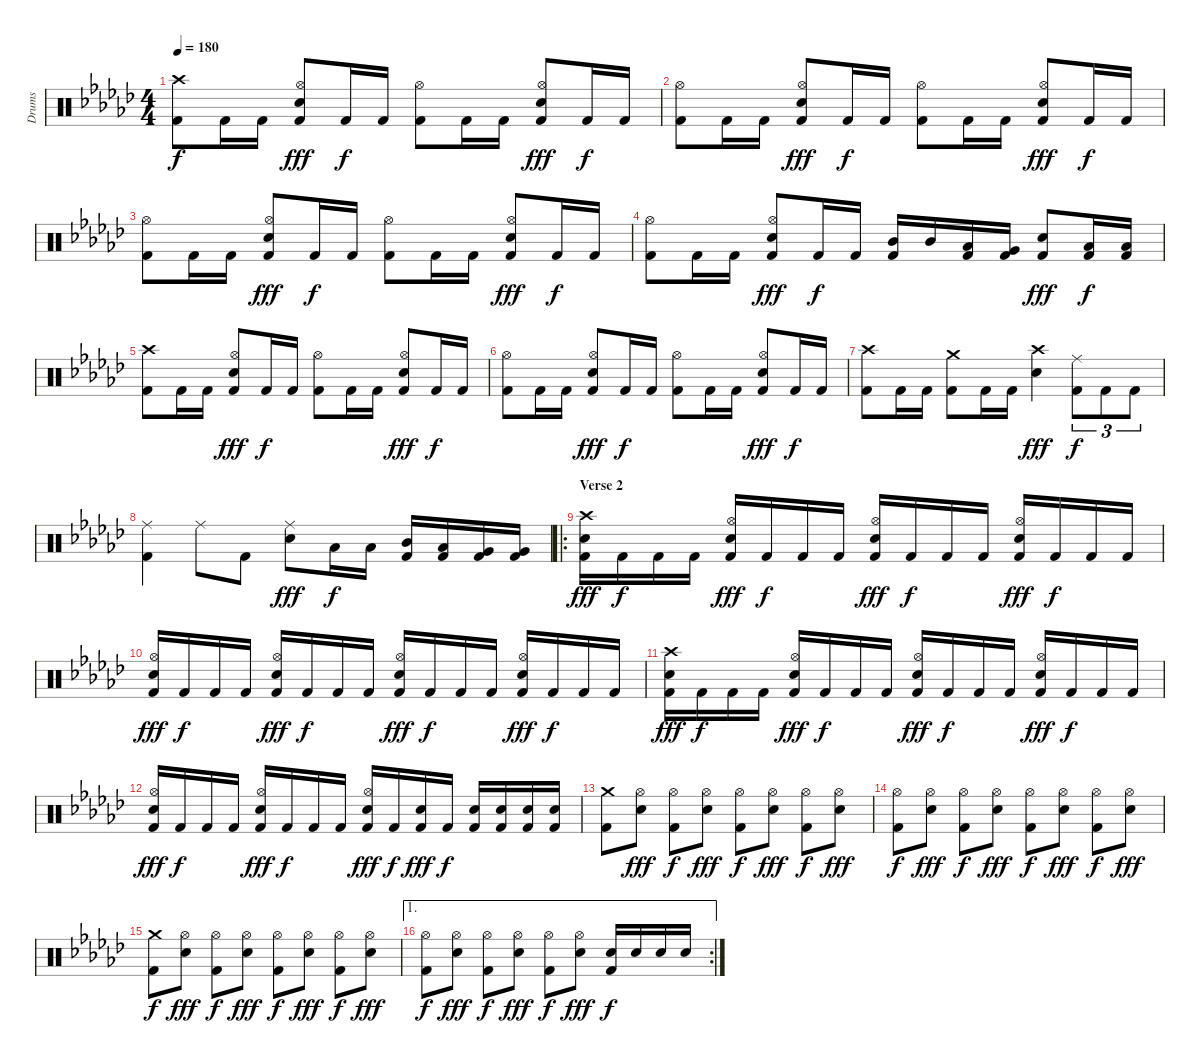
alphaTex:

\track ("Drums" "Drums") {instrument percussion}
\staff {score}
\articulation defaults
\ts (4 4)
\tempo 180
\clef neutral
\ks ebminor
("Crash high (hit)" "Kick (hit) 2").8{dy f} "Kick (hit) 2".16 "Kick (hit) 2".16 ("Hi-Hat (open)" "Snare (hit) 2" "Kick (hit) 2").8{dy fff} "Kick (hit) 2".16{dy f} "Kick (hit) 2".16 ("Hi-Hat (open)" "Kick (hit) 2").8 "Kick (hit) 2".16 "Kick (hit) 2".16 ("Hi-Hat (open)" "Snare (hit) 2" "Kick (hit) 2").8{dy fff} "Kick (hit) 2".16{dy f} "Kick (hit) 2".16 |
("Hi-Hat (open)" "Kick (hit) 2").8 "Kick (hit) 2".16 "Kick (hit) 2".16 ("Hi-Hat (open)" "Snare (hit) 2" "Kick (hit) 2").8{dy fff} "Kick (hit) 2".16{dy f} "Kick (hit) 2".16 ("Hi-Hat (open)" "Kick (hit) 2").8 "Kick (hit) 2".16 "Kick (hit) 2".16 ("Hi-Hat (open)" "Snare (hit) 2" "Kick (hit) 2").8{dy fff} "Kick (hit) 2".16{dy f} "Kick (hit) 2".16 |
("Hi-Hat (open)" "Kick (hit) 2").8 "Kick (hit) 2".16 "Kick (hit) 2".16 ("Hi-Hat (open)" "Snare (hit) 2" "Kick (hit) 2").8{dy fff} "Kick (hit) 2".16{dy f} "Kick (hit) 2".16 ("Hi-Hat (open)" "Kick (hit) 2").8 "Kick (hit) 2".16 "Kick (hit) 2".16 ("Hi-Hat (open)" "Snare (hit) 2" "Kick (hit) 2").8{dy fff} "Kick (hit) 2".16{dy f} "Kick (hit) 2".16 |
("Hi-Hat (open)" "Kick (hit) 2").8 "Kick (hit) 2".16 "Kick (hit) 2".16 ("Hi-Hat (open)" "Snare (hit) 2" "Kick (hit) 2").8{dy fff} "Kick (hit) 2".16{dy f} "Kick (hit) 2".16 ("Mid Tom (hit)" "Kick (hit) 2").16 "Mid Tom (hit)".16 ("Low Tom (hit)" "Kick (hit) 2").16 ("Very Low Tom (hit)" "Kick (hit) 2").16 ("Snare (hit) 2" "Kick (hit) 2").8{dy fff} ("Low Tom (hit)" "Kick (hit) 2").16{dy f} ("Low Tom (hit)" "Kick (hit) 2").16 |
("Crash high (hit)" "Kick (hit) 2").8 "Kick (hit) 2".16 "Kick (hit) 2".16 ("Hi-Hat (open)" "Snare (hit) 2" "Kick (hit) 2").8{dy fff} "Kick (hit) 2".16{dy f} "Kick (hit) 2".16 ("Hi-Hat (open)" "Kick (hit) 2").8 "Kick (hit) 2".16 "Kick (hit) 2".16 ("Hi-Hat (open)" "Snare (hit) 2" "Kick (hit) 2").8{dy fff} "Kick (hit) 2".16{dy f} "Kick (hit) 2".16 |
("Hi-Hat (open)" "Kick (hit) 2").8 "Kick (hit) 2".16 "Kick (hit) 2".16 ("Hi-Hat (open)" "Snare (hit) 2" "Kick (hit) 2").8{dy fff} "Kick (hit) 2".16{dy f} "Kick (hit) 2".16 ("Hi-Hat (open)" "Kick (hit) 2").8 "Kick (hit) 2".16 "Kick (hit) 2".16 ("Hi-Hat (open)" "Snare (hit) 2" "Kick (hit) 2").8{dy fff} "Kick (hit) 2".16{dy f} "Kick (hit) 2".16 |
("Crash high (hit)" "Kick (hit) 2").8 "Kick (hit) 2".16 "Kick (hit) 2".16 ("Crash medium (hit)" "Kick (hit) 2").8 "Kick (hit) 2".16 "Kick (hit) 2".16 ("Crash high (hit)" "Snare (hit) 2").4{dy fff} ("Ride (middle)" "Kick (hit) 2").8{tu (3 2) dy f} "Kick (hit) 2".8{tu (3 2)} "Kick (hit) 2".8{tu (3 2)} |
("Ride (middle)" "Kick (hit) 2").4 "Ride (middle)".8 "Kick (hit) 2".8 ("Ride (middle)" "Snare (hit) 2").8{dy fff} "Low Tom (hit)".16{dy f} "Low Tom (hit)".16 ("Mid Tom (hit)" "Kick (hit) 2").16 ("Low Tom (hit)" "Kick (hit) 2").16 ("Very Low Tom (hit)" "Kick (hit) 2").16 ("Very Low Tom (hit)" "Kick (hit) 2").16 |
\ro
\section ("" "Verse 2")
("Crash high (hit)" "Snare (hit) 2" "Kick (hit) 2").16{dy fff} "Kick (hit) 2".16{dy f} "Kick (hit) 2".16 "Kick (hit) 2".16 ("Hi-Hat (open)" "Snare (hit) 2" "Kick (hit) 2").16{dy fff} "Kick (hit) 2".16{dy f} "Kick (hit) 2".16 "Kick (hit) 2".16 ("Hi-Hat (open)" "Snare (hit) 2" "Kick (hit) 2").16{dy fff} "Kick (hit) 2".16{dy f} "Kick (hit) 2".16 "Kick (hit) 2".16 ("Hi-Hat (open)" "Snare (hit) 2" "Kick (hit) 2").16{dy fff} "Kick (hit) 2".16{dy f} "Kick (hit) 2".16 "Kick (hit) 2".16 |
("Hi-Hat (open)" "Snare (hit) 2" "Kick (hit) 2").16{dy fff} "Kick (hit) 2".16{dy f} "Kick (hit) 2".16 "Kick (hit) 2".16 ("Hi-Hat (open)" "Snare (hit) 2" "Kick (hit) 2").16{dy fff} "Kick (hit) 2".16{dy f} "Kick (hit) 2".16 "Kick (hit) 2".16 ("Hi-Hat (open)" "Snare (hit) 2" "Kick (hit) 2").16{dy fff} "Kick (hit) 2".16{dy f} "Kick (hit) 2".16 "Kick (hit) 2".16 ("Hi-Hat (open)" "Snare (hit) 2" "Kick (hit) 2").16{dy fff} "Kick (hit) 2".16{dy f} "Kick (hit) 2".16 "Kick (hit) 2".16 |
("Crash high (hit)" "Snare (hit) 2" "Kick (hit) 2").16{dy fff} "Kick (hit) 2".16{dy f} "Kick (hit) 2".16 "Kick (hit) 2".16 ("Hi-Hat (open)" "Snare (hit) 2" "Kick (hit) 2").16{dy fff} "Kick (hit) 2".16{dy f} "Kick (hit) 2".16 "Kick (hit) 2".16 ("Hi-Hat (open)" "Snare (hit) 2" "Kick (hit) 2").16{dy fff} "Kick (hit) 2".16{dy f} "Kick (hit) 2".16 "Kick (hit) 2".16 ("Hi-Hat (open)" "Snare (hit) 2" "Kick (hit) 2").16{dy fff} "Kick (hit) 2".16{dy f} "Kick (hit) 2".16 "Kick (hit) 2".16 |
("Hi-Hat (open)" "Snare (hit) 2" "Kick (hit) 2").16{dy fff} "Kick (hit) 2".16{dy f} "Kick (hit) 2".16 "Kick (hit) 2".16 ("Hi-Hat (open)" "Snare (hit) 2" "Kick (hit) 2").16{dy fff} "Kick (hit) 2".16{dy f} "Kick (hit) 2".16 "Kick (hit) 2".16 ("Hi-Hat (open)" "Snare (hit) 2" "Kick (hit) 2").16{dy fff} "Kick (hit) 2".16{dy f} ("Snare (hit) 2" "Kick (hit) 2").16{dy fff} "Kick (hit) 2".16{dy f} ("Snare (hit) 2" "Kick (hit) 2").16 ("Snare (hit) 2" "Kick (hit) 2").16 ("Snare (hit) 2" "Kick (hit) 2").16 ("Snare (hit) 2" "Kick (hit) 2").16 |
("Crash medium (hit)" "Kick (hit) 2").8 ("Hi-Hat (open)" "Snare (hit) 2").8{dy fff} ("Hi-Hat (open)" "Kick (hit) 2").8{dy f} ("Hi-Hat (open)" "Snare (hit) 2").8{dy fff} ("Hi-Hat (open)" "Kick (hit) 2").8{dy f} ("Hi-Hat (open)" "Snare (hit) 2").8{dy fff} ("Hi-Hat (open)" "Kick (hit) 2").8{dy f} ("Hi-Hat (open)" "Snare (hit) 2").8{dy fff} |
("Hi-Hat (open)" "Kick (hit) 2").8{dy f} ("Hi-Hat (open)" "Snare (hit) 2").8{dy fff} ("Hi-Hat (open)" "Kick (hit) 2").8{dy f} ("Hi-Hat (open)" "Snare (hit) 2").8{dy fff} ("Hi-Hat (open)" "Kick (hit) 2").8{dy f} ("Hi-Hat (open)" "Snare (hit) 2").8{dy fff} ("Hi-Hat (open)" "Kick (hit) 2").8{dy f} ("Hi-Hat (open)" "Snare (hit) 2").8{dy fff} |
("Crash medium (hit)" "Kick (hit) 2").8{dy f} ("Hi-Hat (open)" "Snare (hit) 2").8{dy fff} ("Hi-Hat (open)" "Kick (hit) 2").8{dy f} ("Hi-Hat (open)" "Snare (hit) 2").8{dy fff} ("Hi-Hat (open)" "Kick (hit) 2").8{dy f} ("Hi-Hat (open)" "Snare (hit) 2").8{dy fff} ("Hi-Hat (open)" "Kick (hit) 2").8{dy f} ("Hi-Hat (open)" "Snare (hit) 2").8{dy fff} |
\ae 1
\rc 2
("Hi-Hat (open)" "Kick (hit) 2").8{dy f} ("Hi-Hat (open)" "Snare (hit) 2").8{dy fff} ("Hi-Hat (open)" "Kick (hit) 2").8{dy f} ("Hi-Hat (open)" "Snare (hit) 2").8{dy fff} ("Hi-Hat (open)" "Kick (hit) 2").8{dy f} ("Hi-Hat (open)" "Snare (hit) 2").8{dy fff} ("Snare (hit) 2" "Kick (hit) 2").16{dy f} "Snare (hit) 2".16 "Snare (hit) 2".16 "Snare (hit) 2".16
